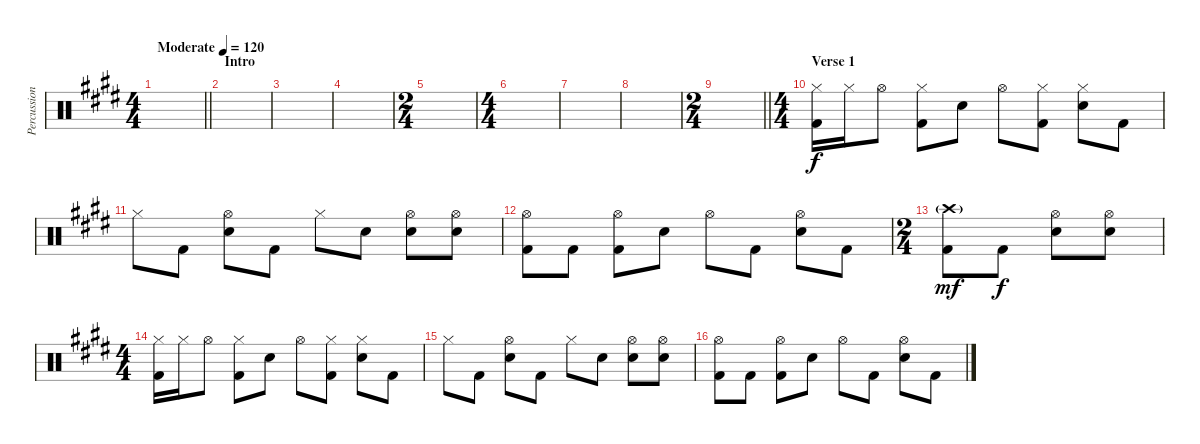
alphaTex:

\track ("Percussion" "Percussion") {instrument percussion}
\staff {score}
\articulation defaults
\ts (4 4)
\tempo (120 "Moderate")
\clef neutral
\barLineRight lightlight
\ks e
|
\section ("" "Intro")
|
|
|
\ts (2 4)
|
\ts (4 4)
|
|
|
\ts (2 4)
\barLineRight lightlight
|
\ts (4 4)
\section ("" "Verse 1")
("Hi-Hat (closed)" "Kick (hit) 2").16 "Hi-Hat (closed)".16 "Hi-Hat (open)".8 ("Hi-Hat (closed)" "Kick (hit) 2").8 "Snare (hit) 2".8 "Hi-Hat (open)".8 ("Hi-Hat (closed)" "Kick (hit) 2").8 ("Hi-Hat (closed)" "Snare (hit) 2").8 "Kick (hit) 2".8 |
"Hi-Hat (closed)".8 "Kick (hit) 2".8 ("Hi-Hat (open)" "Snare (hit) 2").8 "Kick (hit) 2".8 "Hi-Hat (closed)".8 "Snare (hit) 2".8 ("Hi-Hat (open)" "Snare (hit) 2").8 ("Hi-Hat (open)" "Snare (hit) 2").8 |
("Hi-Hat (open)" "Kick (hit) 2").8 "Kick (hit) 2".8 ("Hi-Hat (open)" "Kick (hit) 2").8 "Snare (hit) 2".8 "Hi-Hat (open)".8 "Kick (hit) 2".8 ("Hi-Hat (open)" "Snare (hit) 2").8 "Kick (hit) 2".8 |
\ts (2 4)
("Crash high (hit)"{g} "Kick (hit) 2").8{dy mf} "Kick (hit) 2".8{dy f} ("Hi-Hat (open)" "Snare (hit) 2").8 ("Hi-Hat (open)" "Snare (hit) 2").8 |
\ts (4 4)
("Hi-Hat (closed)" "Kick (hit) 2").16 "Hi-Hat (closed)".16 "Hi-Hat (open)".8 ("Hi-Hat (closed)" "Kick (hit) 2").8 "Snare (hit) 2".8 "Hi-Hat (open)".8 ("Hi-Hat (closed)" "Kick (hit) 2").8 ("Hi-Hat (closed)" "Snare (hit) 2").8 "Kick (hit) 2".8 |
"Hi-Hat (closed)".8 "Kick (hit) 2".8 ("Hi-Hat (open)" "Snare (hit) 2").8 "Kick (hit) 2".8 "Hi-Hat (closed)".8 "Snare (hit) 2".8 ("Hi-Hat (open)" "Snare (hit) 2").8 ("Hi-Hat (open)" "Snare (hit) 2").8 |
("Hi-Hat (open)" "Kick (hit) 2").8 "Kick (hit) 2".8 ("Hi-Hat (open)" "Kick (hit) 2").8 "Snare (hit) 2".8 "Hi-Hat (open)".8 "Kick (hit) 2".8 ("Hi-Hat (open)" "Snare (hit) 2").8 "Kick (hit) 2".8
